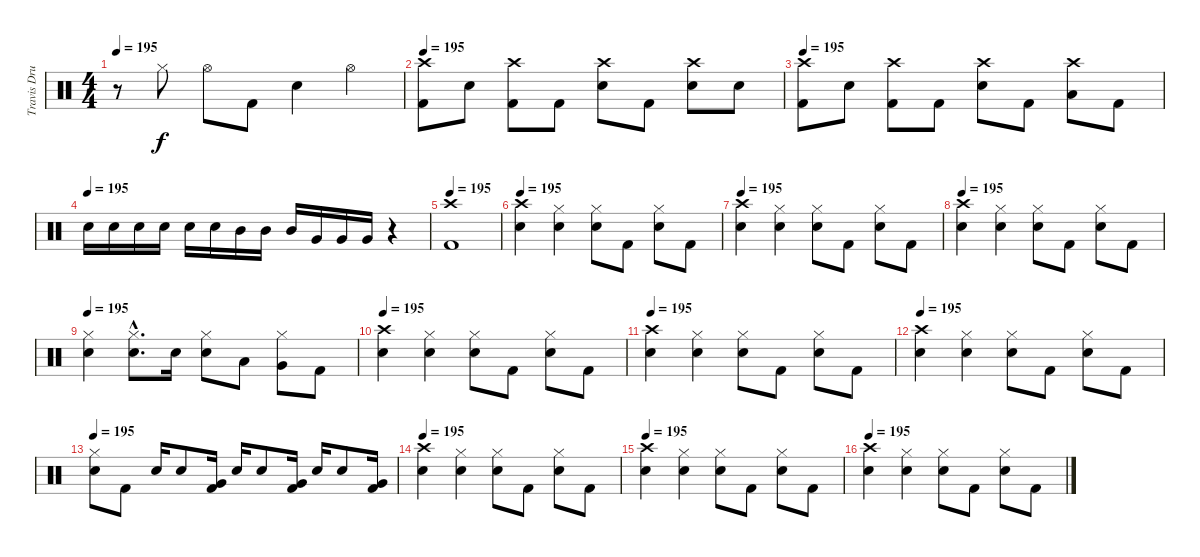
\track ("Travis Drums" "Travis Dru") {instrument percussion}
\staff {score}
\articulation defaults
\ts (4 4)
\tempo 195
\clef neutral
\ks c
r.8{dy f} "Hi-Hat (closed)".8 "Hi-Hat (open)".8 "Kick (hit) 2".8 "Electric Snare (hit)".4 "Hi-Hat (open)".4 |
\tempo 195
("Crash high (hit)" "Kick (hit) 2").8 "Electric Snare (hit)".8 ("Crash high (hit)" "Kick (hit) 2").8 "Kick (hit) 2".8 ("Crash high (hit)" "Electric Snare (hit)").8 "Kick (hit) 2".8 ("Crash high (hit)" "Electric Snare (hit)").8 "Electric Snare (hit)".8 |
\tempo 195
("Crash high (hit)" "Kick (hit) 2").8 "Electric Snare (hit)".8 ("Crash high (hit)" "Kick (hit) 2").8 "Kick (hit) 2".8 ("Crash high (hit)" "Electric Snare (hit)").8 "Kick (hit) 2".8 ("Low Tom (hit)" "Crash high (hit)").8 "Kick (hit) 2".8 |
\tempo (195)
"Electric Snare (hit)".16 "Electric Snare (hit)".16 "Electric Snare (hit)".16 "Electric Snare (hit)".16 "Electric Snare (hit)".16 "Electric Snare (hit)".16 "Mid Tom (hit)".16 "Mid Tom (hit)".16 "Mid Tom (hit)".16 "Very Low Tom (hit)".16 "Very Low Tom (hit)".16 "Very Low Tom (hit)".16 r.4 |
\tempo 195
("Crash high (hit)" "Kick (hit) 2").1 |
\tempo 195
("Crash high (hit)" "Electric Snare (hit)").4 ("Hi-Hat (closed)" "Electric Snare (hit)").4 ("Hi-Hat (closed)" "Electric Snare (hit)").8 "Kick (hit) 2".8 ("Hi-Hat (closed)" "Electric Snare (hit)").8 "Kick (hit) 2".8 |
\tempo 195
("Crash high (hit)" "Electric Snare (hit)").4 ("Hi-Hat (closed)" "Electric Snare (hit)").4 ("Hi-Hat (closed)" "Electric Snare (hit)").8 "Kick (hit) 2".8 ("Hi-Hat (closed)" "Electric Snare (hit)").8 "Kick (hit) 2".8 |
\tempo 195
("Crash high (hit)" "Electric Snare (hit)").4 ("Hi-Hat (closed)" "Electric Snare (hit)").4 ("Hi-Hat (closed)" "Electric Snare (hit)").8 "Kick (hit) 2".8 ("Hi-Hat (closed)" "Electric Snare (hit)").8 "Kick (hit) 2".8 |
\tempo 195
("Hi-Hat (closed)" "Electric Snare (hit)").4 ("Hi-Hat (closed)"{hac} "Electric Snare (hit)"{hac}).8{d} "Electric Snare (hit)".16 ("Hi-Hat (closed)" "Electric Snare (hit)").8 "Low Tom (hit)".8 ("Very Low Tom (hit)" "Hi-Hat (closed)").8 "Kick (hit) 2".8 |
\tempo 195
("Crash high (hit)" "Electric Snare (hit)").4 ("Hi-Hat (closed)" "Electric Snare (hit)").4 ("Hi-Hat (closed)" "Electric Snare (hit)").8 "Kick (hit) 2".8 ("Hi-Hat (closed)" "Electric Snare (hit)").8 "Kick (hit) 2".8 |
\tempo 195
("Crash high (hit)" "Electric Snare (hit)").4 ("Hi-Hat (closed)" "Electric Snare (hit)").4 ("Hi-Hat (closed)" "Electric Snare (hit)").8 "Kick (hit) 2".8 ("Hi-Hat (closed)" "Electric Snare (hit)").8 "Kick (hit) 2".8 |
\tempo 195
("Crash high (hit)" "Electric Snare (hit)").4 ("Hi-Hat (closed)" "Electric Snare (hit)").4 ("Hi-Hat (closed)" "Electric Snare (hit)").8 "Kick (hit) 2".8 ("Hi-Hat (closed)" "Electric Snare (hit)").8 "Kick (hit) 2".8 |
\tempo 195
("Hi-Hat (closed)" "Electric Snare (hit)").8 "Kick (hit) 2".8 "Electric Snare (hit)".16 "Electric Snare (hit)".8 ("Very Low Tom (hit)" "Kick (hit) 2").16 "Electric Snare (hit)".16 "Electric Snare (hit)".8 ("Very Low Tom (hit)" "Kick (hit) 2").16 "Electric Snare (hit)".16 "Electric Snare (hit)".8 ("Very Low Tom (hit)" "Kick (hit) 2").16 |
\tempo 195
("Crash high (hit)" "Electric Snare (hit)").4 ("Hi-Hat (closed)" "Electric Snare (hit)").4 ("Hi-Hat (closed)" "Electric Snare (hit)").8 "Kick (hit) 2".8 ("Hi-Hat (closed)" "Electric Snare (hit)").8 "Kick (hit) 2".8 |
\tempo 195
("Crash high (hit)" "Electric Snare (hit)").4 ("Hi-Hat (closed)" "Electric Snare (hit)").4 ("Hi-Hat (closed)" "Electric Snare (hit)").8 "Kick (hit) 2".8 ("Hi-Hat (closed)" "Electric Snare (hit)").8 "Kick (hit) 2".8 |
\tempo 195
("Crash high (hit)" "Electric Snare (hit)").4 ("Hi-Hat (closed)" "Electric Snare (hit)").4 ("Hi-Hat (closed)" "Electric Snare (hit)").8 "Kick (hit) 2".8 ("Hi-Hat (closed)" "Electric Snare (hit)").8 "Kick (hit) 2".8
